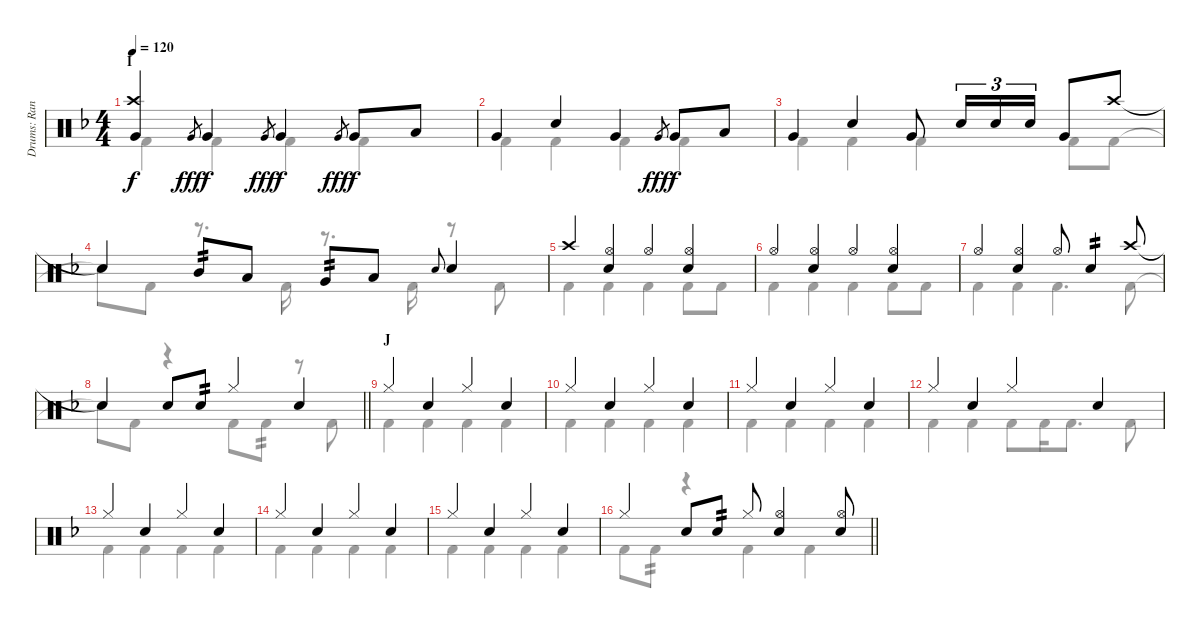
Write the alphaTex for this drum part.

\track ("Drums: Randy" "Drums: Ran") {instrument percussion}
\staff {score}
\articulation defaults
\voice
\ts (4 4)
\section ("" "I")
\tempo 120
\clef neutral
\ks f
("Crash high (hit)" "Very Low Tom (hit)").4{dy f} "Very Low Tom (hit)".8{gr dy fff} "Very Low Tom (hit)".4{dy f} "Very Low Tom (hit)".8{gr dy fff} "Very Low Tom (hit)".4{dy f} "Very Low Tom (hit)".8{gr dy fff} "Very Low Tom (hit)".8{dy f} "Low Tom (hit)".8 |
"Very Low Tom (hit)".4 "Snare (hit) 2".4 "Very Low Tom (hit)".4 "Very Low Tom (hit)".8{gr dy fff} "Very Low Tom (hit)".8{dy f} "Low Tom (hit)".8 |
"Very Low Tom (hit)".4 "Snare (hit) 2".4 "Very Low Tom (hit)".8 "Snare (hit) 2".16{tu (3 2)} "Snare (hit) 2".16{tu (3 2)} "Snare (hit) 2".16{tu (3 2)} "Very Low Tom (hit)".8 "Crash high (hit)".8 |
"Snare (hit)"{t}.4 "Mid Tom (hit)".8{tp 2} "Low Tom (hit)".8 "Very Low Tom (hit)".8{tp 2} "Low Floor Tom (hit)".8 "Electric Snare (hit)".8{gr onbeat} "Snare (hit) 2".4 |
"Crash high (hit)".4 ("Hi-Hat (open)" "Snare (hit) 2").4 "Hi-Hat (open)".4 ("Hi-Hat (open)" "Snare (hit) 2").4 |
"Hi-Hat (open)".4 ("Hi-Hat (open)" "Snare (hit) 2").4 "Hi-Hat (open)".4 ("Hi-Hat (open)" "Snare (hit) 2").4 |
"Hi-Hat (open)".4 ("Hi-Hat (open)" "Snare (hit) 2").4 "Hi-Hat (open)".8 "Snare (hit) 2".4{tp 2} "Crash high (hit)".8 |
\barLineRight lightlight "Snare (hit)"{t}.4 "Snare (hit) 2".8 "Snare (hit) 2".8{tp 2} "Hi-Hat (closed)".4 "Snare (hit) 2".4
|
\section ("" "J")
"Hi-Hat (closed)".4 "Snare (hit) 2".4 "Hi-Hat (closed)".4 "Snare (hit) 2".4 |
"Hi-Hat (closed)".4 "Snare (hit) 2".4 "Hi-Hat (closed)".4 "Snare (hit) 2".4 |
"Hi-Hat (closed)".4 "Snare (hit) 2".4 "Hi-Hat (closed)".4 "Snare (hit) 2".4 |
"Hi-Hat (closed)".4 "Snare (hit) 2".4 "Hi-Hat (closed)".4 "Snare (hit) 2".4 |
"Hi-Hat (closed)".4 "Snare (hit) 2".4 "Hi-Hat (closed)".4 "Snare (hit) 2".4 |
"Hi-Hat (closed)".4 "Snare (hit) 2".4 "Hi-Hat (closed)".4 "Snare (hit) 2".4 |
"Hi-Hat (closed)".4 "Snare (hit) 2".4 "Hi-Hat (closed)".4 "Snare (hit) 2".4 |
\barLineRight lightlight "Hi-Hat (closed)".4 "Snare (hit) 2".8 "Snare (hit) 2".8{tp 2} "Hi-Hat (closed)".8
("Hi-Hat (open)" "Snare (hit) 2").4 ("Hi-Hat (open)" "Snare (hit) 2").8
\voice
\clef neutral
\ottava regular
\simile none
\ks f "Kick (hit) 2".4{dy f} "Kick (hit) 2".4 "Kick (hit) 2".4 "Kick (hit) 2".4
|
"Kick (hit) 2".4 "Kick (hit) 2".4 "Kick (hit) 2".4 "Kick (hit) 2".4 |
"Kick (hit) 2".4 "Kick (hit) 2".4 "Kick (hit) 2".4 "Kick (hit) 2".8 "Kick (hit) 2".8 |
"Snare (hit)"{t}.8 "Kick (hit) 2".8 r.8{d} "Kick (hit) 2".16 r.8{d} "Kick (hit) 2".16 r.8 "Kick (hit) 2".8 |
"Kick (hit) 2".4 "Kick (hit) 2".4 "Kick (hit) 2".4 "Kick (hit) 2".8 "Kick (hit) 2".8 |
"Kick (hit) 2".4 "Kick (hit) 2".4 "Kick (hit) 2".4 "Kick (hit) 2".8 "Kick (hit) 2".8 |
"Kick (hit) 2".4 "Kick (hit) 2".4 "Kick (hit) 2".4{d} "Kick (hit) 2".8 |
\barLineRight lightlight "Snare (hit)"{t}.8 "Kick (hit) 2".8
r.4 "Kick (hit) 2".8 "Kick (hit) 2".8{tp 2} r.8 "Kick (hit) 2".8 |
"Kick (hit) 2".4 "Kick (hit) 2".4 "Kick (hit) 2".4 "Kick (hit) 2".4 |
"Kick (hit) 2".4 "Kick (hit) 2".4 "Kick (hit) 2".4 "Kick (hit) 2".4 |
"Kick (hit) 2".4 "Kick (hit) 2".4 "Kick (hit) 2".4 "Kick (hit) 2".4 |
"Kick (hit) 2".4 "Kick (hit) 2".4 "Kick (hit) 2".8 "Kick (hit) 2".16 "Kick (hit) 2".8{d} "Kick (hit) 2".8 |
"Kick (hit) 2".4 "Kick (hit) 2".4 "Kick (hit) 2".4 "Kick (hit) 2".4 |
"Kick (hit) 2".4 "Kick (hit) 2".4 "Kick (hit) 2".4 "Kick (hit) 2".4 |
"Kick (hit) 2".4 "Kick (hit) 2".4 "Kick (hit) 2".4 "Kick (hit) 2".4 |
\barLineRight lightlight "Kick (hit) 2".8 "Kick (hit) 2".8{tp 2}
r.4 "Kick (hit) 2".4 "Kick (hit) 2".4
